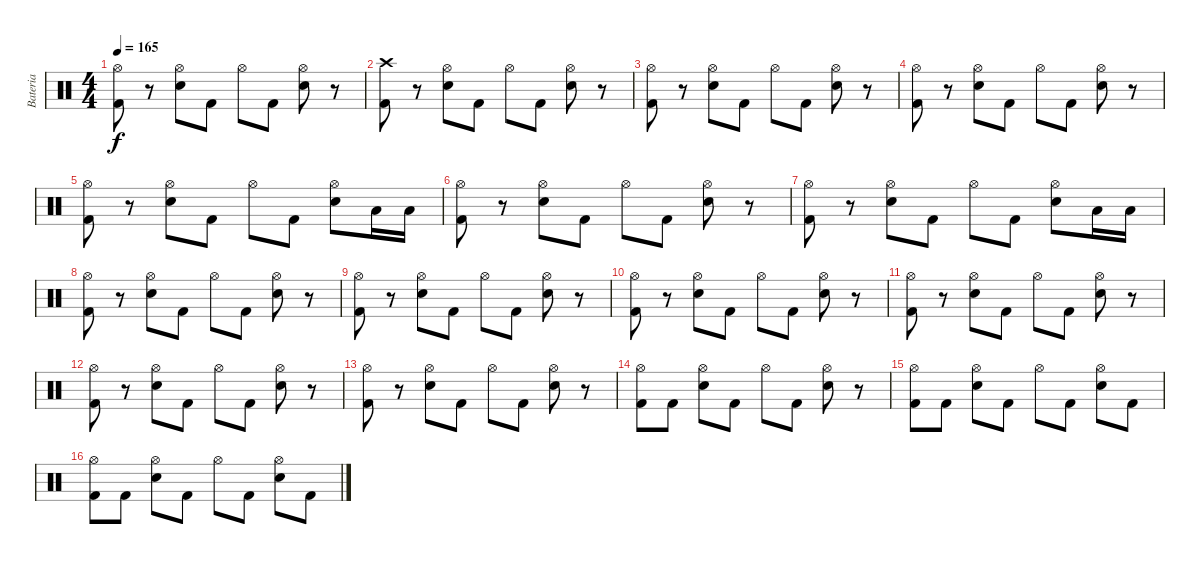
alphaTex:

\track ("Bateria" "Bateria") {instrument percussion}
\staff {score}
\articulation defaults
\ts (4 4)
\tempo 165
\clef neutral
\ks c
("Hi-Hat (open)" "Kick (hit) 2").8{dy f} r.8 ("Hi-Hat (open)" "Snare (hit) 2").8 "Kick (hit) 2".8 "Hi-Hat (open)".8 "Kick (hit) 2".8 ("Hi-Hat (open)" "Snare (hit) 2").8 r.8 |
("Crash high (hit)" "Kick (hit) 2").8 r.8 ("Hi-Hat (open)" "Snare (hit) 2").8 "Kick (hit) 2".8 "Hi-Hat (open)".8 "Kick (hit) 2".8 ("Hi-Hat (open)" "Snare (hit) 2").8 r.8 |
("Hi-Hat (open)" "Kick (hit) 2").8 r.8 ("Hi-Hat (open)" "Snare (hit) 2").8 "Kick (hit) 2".8 "Hi-Hat (open)".8 "Kick (hit) 2".8 ("Hi-Hat (open)" "Snare (hit) 2").8 r.8 |
("Hi-Hat (open)" "Kick (hit) 2").8 r.8 ("Hi-Hat (open)" "Snare (hit) 2").8 "Kick (hit) 2".8 "Hi-Hat (open)".8 "Kick (hit) 2".8 ("Hi-Hat (open)" "Snare (hit) 2").8 r.8 |
("Hi-Hat (open)" "Kick (hit) 2").8 r.8 ("Hi-Hat (open)" "Snare (hit) 2").8 "Kick (hit) 2".8 "Hi-Hat (open)".8 "Kick (hit) 2".8 ("Hi-Hat (open)" "Snare (hit) 2").8 "Low Tom (hit)".16 "Low Tom (hit)".16 |
("Hi-Hat (open)" "Kick (hit) 2").8 r.8 ("Hi-Hat (open)" "Snare (hit) 2").8 "Kick (hit) 2".8 "Hi-Hat (open)".8 "Kick (hit) 2".8 ("Hi-Hat (open)" "Snare (hit) 2").8 r.8 |
("Hi-Hat (open)" "Kick (hit) 2").8 r.8 ("Hi-Hat (open)" "Snare (hit) 2").8 "Kick (hit) 2".8 "Hi-Hat (open)".8 "Kick (hit) 2".8 ("Hi-Hat (open)" "Snare (hit) 2").8 "Low Tom (hit)".16 "Low Tom (hit)".16 |
("Hi-Hat (open)" "Kick (hit) 2").8 r.8 ("Hi-Hat (open)" "Snare (hit) 2").8 "Kick (hit) 2".8 "Hi-Hat (open)".8 "Kick (hit) 2".8 ("Hi-Hat (open)" "Snare (hit) 2").8 r.8 |
("Hi-Hat (open)" "Kick (hit) 2").8 r.8 ("Hi-Hat (open)" "Snare (hit) 2").8 "Kick (hit) 2".8 "Hi-Hat (open)".8 "Kick (hit) 2".8 ("Hi-Hat (open)" "Snare (hit) 2").8 r.8 |
("Hi-Hat (open)" "Kick (hit) 2").8 r.8 ("Hi-Hat (open)" "Snare (hit) 2").8 "Kick (hit) 2".8 "Hi-Hat (open)".8 "Kick (hit) 2".8 ("Hi-Hat (open)" "Snare (hit) 2").8 r.8 |
("Hi-Hat (open)" "Kick (hit) 2").8 r.8 ("Hi-Hat (open)" "Snare (hit) 2").8 "Kick (hit) 2".8 "Hi-Hat (open)".8 "Kick (hit) 2".8 ("Hi-Hat (open)" "Snare (hit) 2").8 r.8 |
("Hi-Hat (open)" "Kick (hit) 2").8 r.8 ("Hi-Hat (open)" "Snare (hit) 2").8 "Kick (hit) 2".8 "Hi-Hat (open)".8 "Kick (hit) 2".8 ("Hi-Hat (open)" "Snare (hit) 2").8 r.8 |
("Hi-Hat (open)" "Kick (hit) 2").8 r.8 ("Hi-Hat (open)" "Snare (hit) 2").8 "Kick (hit) 2".8 "Hi-Hat (open)".8 "Kick (hit) 2".8 ("Hi-Hat (open)" "Snare (hit) 2").8 r.8 |
("Hi-Hat (open)" "Kick (hit) 2").8 "Kick (hit) 2".8 ("Hi-Hat (open)" "Snare (hit) 2").8 "Kick (hit) 2".8 "Hi-Hat (open)".8 "Kick (hit) 2".8 ("Hi-Hat (open)" "Snare (hit) 2").8 r.8 |
("Hi-Hat (open)" "Kick (hit) 2").8 "Kick (hit) 2".8 ("Hi-Hat (open)" "Snare (hit) 2").8 "Kick (hit) 2".8 "Hi-Hat (open)".8 "Kick (hit) 2".8 ("Hi-Hat (open)" "Snare (hit) 2").8 "Kick (hit) 2".8 |
("Hi-Hat (open)" "Kick (hit) 2").8 "Kick (hit) 2".8 ("Hi-Hat (open)" "Snare (hit) 2").8 "Kick (hit) 2".8 "Hi-Hat (open)".8 "Kick (hit) 2".8 ("Hi-Hat (open)" "Snare (hit) 2").8 "Kick (hit) 2".8
